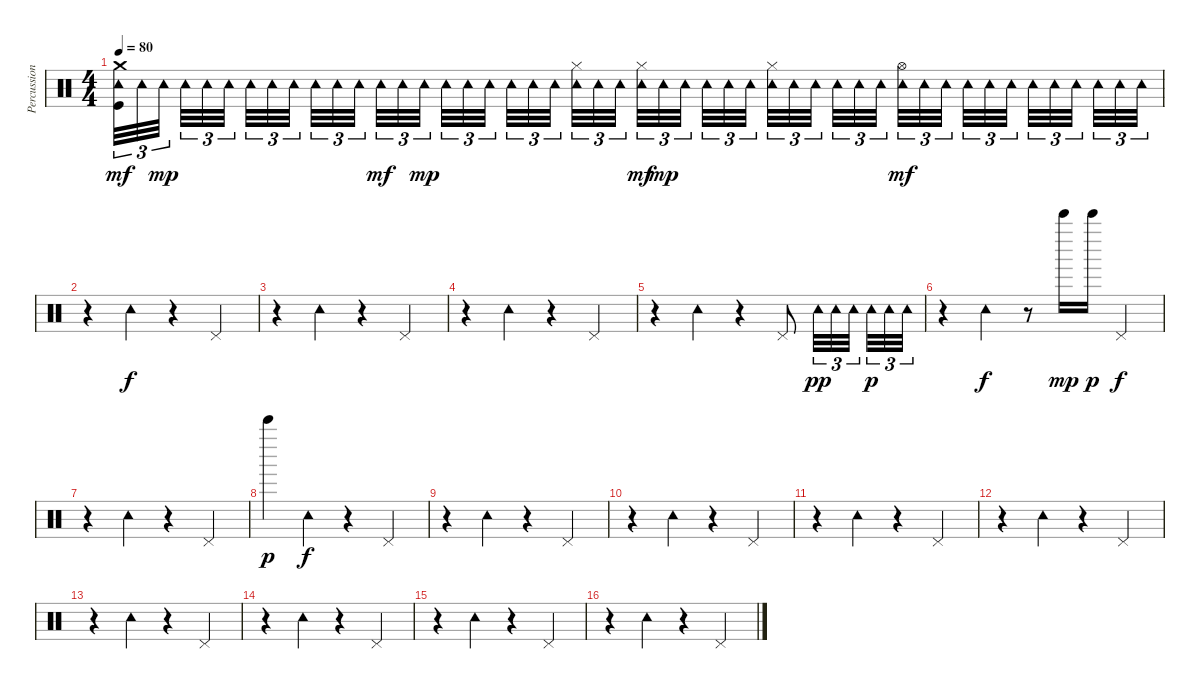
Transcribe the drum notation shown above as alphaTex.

\track ("Percussion" "Percussion") {instrument percussion}
\staff {score}
\articulation defaults
\ts (4 4)
\tempo 80
\clef neutral
\ks c
("Crash medium (hit)" "Tambourine (hit)" "Kick (hit)").32{tu (3 2) dy mf} "Tambourine (hit)".32{tu (3 2)} "Tambourine (hit)".32{tu (3 2) dy mp} "Tambourine (hit)".32{tu (3 2)} "Tambourine (hit)".32{tu (3 2)} "Tambourine (hit)".32{tu (3 2)} "Tambourine (hit)".32{tu (3 2)} "Tambourine (hit)".32{tu (3 2)} "Tambourine (hit)".32{tu (3 2)} "Tambourine (hit)".32{tu (3 2)} "Tambourine (hit)".32{tu (3 2)} "Tambourine (hit)".32{tu (3 2)} "Tambourine (hit)".32{tu (3 2) dy mf} "Tambourine (hit)".32{tu (3 2)} "Tambourine (hit)".32{tu (3 2) dy mp} "Tambourine (hit)".32{tu (3 2)} "Tambourine (hit)".32{tu (3 2)} "Tambourine (hit)".32{tu (3 2)} "Tambourine (hit)".32{tu (3 2)} "Tambourine (hit)".32{tu (3 2)} "Tambourine (hit)".32{tu (3 2)} ("Hi-Hat (closed)" "Tambourine (hit)").32{tu (3 2)} "Tambourine (hit)".32{tu (3 2)} "Tambourine (hit)".32{tu (3 2)} ("Hi-Hat (closed)" "Tambourine (hit)").32{tu (3 2) dy mf} "Tambourine (hit)".32{tu (3 2) dy mp} "Tambourine (hit)".32{tu (3 2)} "Tambourine (hit)".32{tu (3 2)} "Tambourine (hit)".32{tu (3 2)} "Tambourine (hit)".32{tu (3 2)} ("Hi-Hat (closed)" "Tambourine (hit)").32{tu (3 2)} "Tambourine (hit)".32{tu (3 2)} "Tambourine (hit)".32{tu (3 2)} "Tambourine (hit)".32{tu (3 2)} "Tambourine (hit)".32{tu (3 2)} "Tambourine (hit)".32{tu (3 2)} ("Hi-Hat (open)" "Tambourine (hit)").32{tu (3 2) dy mf} "Tambourine (hit)".32{tu (3 2)} "Tambourine (hit)".32{tu (3 2)} "Tambourine (hit)".32{tu (3 2)} "Tambourine (hit)".32{tu (3 2)} "Tambourine (hit)".32{tu (3 2)} "Tambourine (hit)".32{tu (3 2)} "Tambourine (hit)".32{tu (3 2)} "Tambourine (hit)".32{tu (3 2)} "Tambourine (hit)".32{tu (3 2)} "Tambourine (hit)".32{tu (3 2)} "Tambourine (hit)".32{tu (3 2)} |
r.4 "Tambourine (hit)".4{dy f} r.4 "Pedal Hi-Hat (hit)".4 |
r.4 "Tambourine (hit)".4 r.4 "Pedal Hi-Hat (hit)".4 |
r.4 "Tambourine (hit)".4 r.4 "Pedal Hi-Hat (hit)".4 |
r.4 "Tambourine (hit)".4 r.4 "Pedal Hi-Hat (hit)".8 "Tambourine (hit)".32{tu (3 2) dy pp} "Tambourine (hit)".32{tu (3 2)} "Tambourine (hit)".32{tu (3 2)} "Tambourine (hit)".32{tu (3 2) dy p} "Tambourine (hit)".32{tu (3 2)} "Tambourine (hit)".32{tu (3 2)} |
r.4 "Tambourine (hit)".4{dy f} r.8 "Bell Tree (hit)".16{dy mp} "Bell Tree (hit)".16{dy p} "Pedal Hi-Hat (hit)".4{dy f} |
r.4 "Tambourine (hit)".4 r.4 "Pedal Hi-Hat (hit)".4 |
"Bell Tree (hit)".4{dy p} "Tambourine (hit)".4{dy f} r.4 "Pedal Hi-Hat (hit)".4 |
r.4 "Tambourine (hit)".4 r.4 "Pedal Hi-Hat (hit)".4 |
r.4 "Tambourine (hit)".4 r.4 "Pedal Hi-Hat (hit)".4 |
r.4 "Tambourine (hit)".4 r.4 "Pedal Hi-Hat (hit)".4 |
r.4 "Tambourine (hit)".4 r.4 "Pedal Hi-Hat (hit)".4 |
r.4 "Tambourine (hit)".4 r.4 "Pedal Hi-Hat (hit)".4 |
r.4 "Tambourine (hit)".4 r.4 "Pedal Hi-Hat (hit)".4 |
r.4 "Tambourine (hit)".4 r.4 "Pedal Hi-Hat (hit)".4 |
r.4 "Tambourine (hit)".4 r.4 "Pedal Hi-Hat (hit)".4
